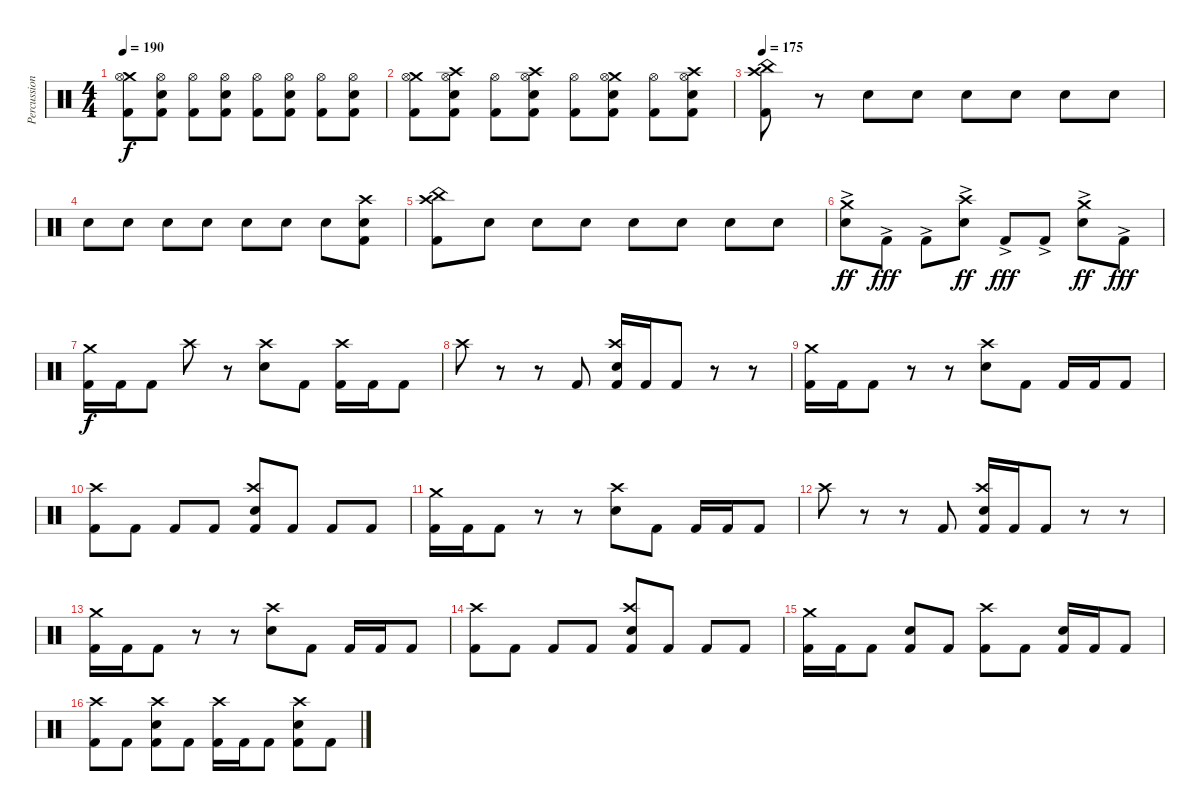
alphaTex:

\track ("Percussion" "Percussion") {instrument percussion}
\staff {score}
\articulation defaults
\ts (4 4)
\tempo 190
\clef neutral
\ks c
("Crash medium (hit)" "Hi-Hat (open)" "Kick (hit) 2").8{dy f} ("Hi-Hat (open)" "Snare (hit) 2" "Kick (hit) 2").8 ("Hi-Hat (open)" "Kick (hit) 2").8 ("Hi-Hat (open)" "Snare (hit) 2" "Kick (hit) 2").8 ("Hi-Hat (open)" "Kick (hit) 2").8 ("Hi-Hat (open)" "Snare (hit) 2" "Kick (hit) 2").8 ("Hi-Hat (open)" "Kick (hit) 2").8 ("Hi-Hat (open)" "Snare (hit) 2" "Kick (hit) 2").8 |
("Crash medium (hit)" "Hi-Hat (open)" "Kick (hit) 2").8 ("Crash high (hit)" "Hi-Hat (open)" "Snare (hit) 2" "Kick (hit) 2").8 ("Hi-Hat (open)" "Kick (hit) 2").8 ("Crash high (hit)" "Hi-Hat (open)" "Snare (hit) 2" "Kick (hit) 2").8 ("Hi-Hat (open)" "Kick (hit) 2").8 ("Crash medium (hit)" "Hi-Hat (open)" "Snare (hit) 2" "Kick (hit) 2").8 ("Hi-Hat (open)" "Kick (hit) 2").8 ("Crash high (hit)" "Hi-Hat (open)" "Snare (hit) 2" "Kick (hit) 2").8 |
\tempo 175
("Crash high (hit)" "China (hit)" "Kick (hit) 2").8 r.8 "Snare (hit) 2".8 "Snare (hit) 2".8 "Snare (hit) 2".8 "Snare (hit) 2".8 "Snare (hit) 2".8 "Snare (hit) 2".8 |
"Snare (hit) 2".8 "Snare (hit) 2".8 "Snare (hit) 2".8 "Snare (hit) 2".8 "Snare (hit) 2".8 "Snare (hit) 2".8 "Snare (hit) 2".8 ("Crash high (hit)" "Snare (hit) 2" "Kick (hit) 2").8 |
("Crash high (hit)" "China (hit)" "Kick (hit) 2").8 "Snare (hit) 2".8 "Snare (hit) 2".8 "Snare (hit) 2".8 "Snare (hit) 2".8 "Snare (hit) 2".8 "Snare (hit) 2".8 "Snare (hit) 2".8 |
("Crash medium (hit)"{ac} "Electric Snare (hit)").8{dy ff} "Kick (hit) 2"{ac}.8{dy fff} "Kick (hit) 2"{ac}.8 ("Crash high (hit)"{ac} "Electric Snare (hit)").8{dy ff} "Kick (hit) 2"{ac}.8{dy fff} "Kick (hit) 2"{ac}.8 ("Crash medium (hit)"{ac} "Electric Snare (hit)").8{dy ff} "Kick (hit) 2"{ac}.8{dy fff} |
("Crash medium (hit)" "Kick (hit) 2").16{dy f} "Kick (hit) 2".16 "Kick (hit) 2".8 "Crash high (hit)".8 r.8 ("Crash high (hit)" "Electric Snare (hit)").8 "Kick (hit) 2".8 ("Crash high (hit)" "Kick (hit) 2").16 "Kick (hit) 2".16 "Kick (hit) 2".8 |
"Crash high (hit)".8 r.8 r.8 "Kick (hit) 2".8 ("Crash high (hit)" "Electric Snare (hit)" "Kick (hit) 2").16 "Kick (hit) 2".16 "Kick (hit) 2".8 r.8 r.8 |
("Crash medium (hit)" "Kick (hit) 2").16 "Kick (hit) 2".16 "Kick (hit) 2".8 r.8 r.8 ("Crash high (hit)" "Electric Snare (hit)").8 "Kick (hit) 2".8 "Kick (hit) 2".16 "Kick (hit) 2".16 "Kick (hit) 2".8 |
("Crash high (hit)" "Kick (hit) 2").8 "Kick (hit) 2".8 "Kick (hit) 2".8 "Kick (hit) 2".8 ("Crash high (hit)" "Electric Snare (hit)" "Kick (hit) 2").8 "Kick (hit) 2".8 "Kick (hit) 2".8 "Kick (hit) 2".8 |
("Crash medium (hit)" "Kick (hit) 2").16 "Kick (hit) 2".16 "Kick (hit) 2".8 r.8 r.8 ("Crash high (hit)" "Electric Snare (hit)").8 "Kick (hit) 2".8 "Kick (hit) 2".16 "Kick (hit) 2".16 "Kick (hit) 2".8 |
"Crash high (hit)".8 r.8 r.8 "Kick (hit) 2".8 ("Crash high (hit)" "Electric Snare (hit)" "Kick (hit) 2").16 "Kick (hit) 2".16 "Kick (hit) 2".8 r.8 r.8 |
("Crash medium (hit)" "Kick (hit) 2").16 "Kick (hit) 2".16 "Kick (hit) 2".8 r.8 r.8 ("Crash high (hit)" "Electric Snare (hit)").8 "Kick (hit) 2".8 "Kick (hit) 2".16 "Kick (hit) 2".16 "Kick (hit) 2".8 |
("Crash high (hit)" "Kick (hit) 2").8 "Kick (hit) 2".8 "Kick (hit) 2".8 "Kick (hit) 2".8 ("Crash high (hit)" "Electric Snare (hit)" "Kick (hit) 2").8 "Kick (hit) 2".8 "Kick (hit) 2".8 "Kick (hit) 2".8 |
("Crash medium (hit)" "Kick (hit) 2").16 "Kick (hit) 2".16 "Kick (hit) 2".8 ("Snare (hit) 2" "Kick (hit) 2").8 "Kick (hit) 2".8 ("Crash high (hit)" "Kick (hit) 2").8 "Kick (hit) 2".8 ("Snare (hit) 2" "Kick (hit) 2").16 "Kick (hit) 2".16 "Kick (hit) 2".8 |
("Crash high (hit)" "Kick (hit) 2").8 "Kick (hit) 2".8 ("Crash high (hit)" "Snare (hit) 2" "Kick (hit) 2").8 "Kick (hit) 2".8 ("Crash high (hit)" "Kick (hit) 2").16 "Kick (hit) 2".16 "Kick (hit) 2".8 ("Crash high (hit)" "Snare (hit) 2" "Kick (hit) 2").8 "Kick (hit) 2".8
